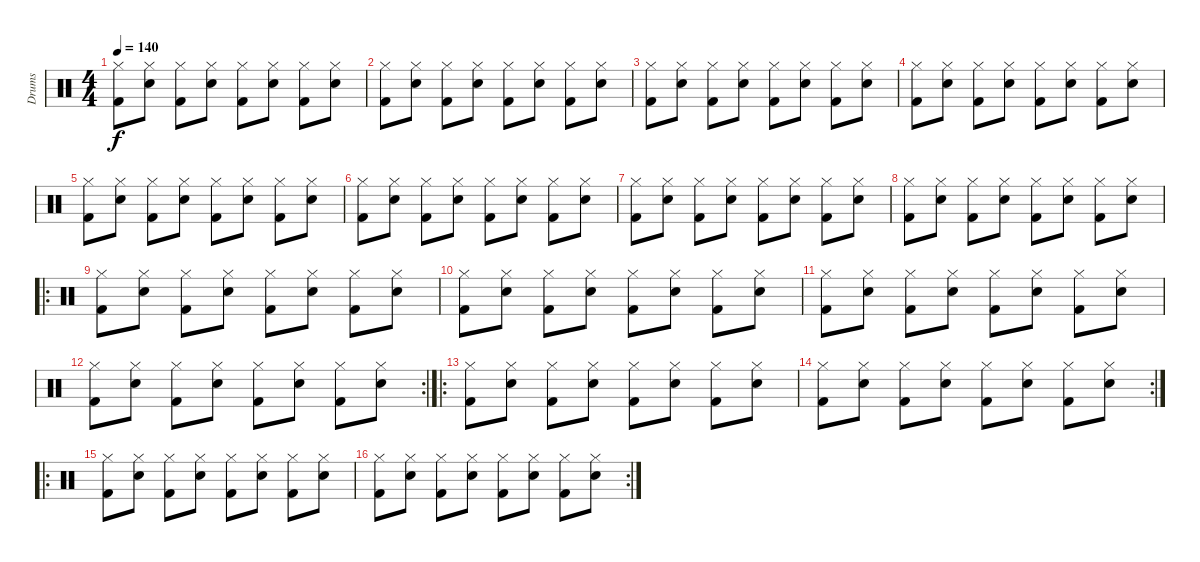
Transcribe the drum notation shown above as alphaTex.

\track ("Drums" "Drums") {instrument percussion}
\staff {score}
\articulation defaults
\ts (4 4)
\tempo 140
\clef neutral
\ks c
("Hi-Hat (closed)" "Kick (hit) 2").8{dy f} ("Hi-Hat (closed)" "Snare (hit) 2").8 ("Hi-Hat (closed)" "Kick (hit) 2").8 ("Hi-Hat (closed)" "Snare (hit) 2").8 ("Hi-Hat (closed)" "Kick (hit) 2").8 ("Hi-Hat (closed)" "Snare (hit) 2").8 ("Hi-Hat (closed)" "Kick (hit) 2").8 ("Hi-Hat (closed)" "Snare (hit) 2").8 |
("Hi-Hat (closed)" "Kick (hit) 2").8 ("Hi-Hat (closed)" "Snare (hit) 2").8 ("Hi-Hat (closed)" "Kick (hit) 2").8 ("Hi-Hat (closed)" "Snare (hit) 2").8 ("Hi-Hat (closed)" "Kick (hit) 2").8 ("Hi-Hat (closed)" "Snare (hit) 2").8 ("Hi-Hat (closed)" "Kick (hit) 2").8 ("Hi-Hat (closed)" "Snare (hit) 2").8 |
("Hi-Hat (closed)" "Kick (hit) 2").8 ("Hi-Hat (closed)" "Snare (hit) 2").8 ("Hi-Hat (closed)" "Kick (hit) 2").8 ("Hi-Hat (closed)" "Snare (hit) 2").8 ("Hi-Hat (closed)" "Kick (hit) 2").8 ("Hi-Hat (closed)" "Snare (hit) 2").8 ("Hi-Hat (closed)" "Kick (hit) 2").8 ("Hi-Hat (closed)" "Snare (hit) 2").8 |
("Hi-Hat (closed)" "Kick (hit) 2").8 ("Hi-Hat (closed)" "Snare (hit) 2").8 ("Hi-Hat (closed)" "Kick (hit) 2").8 ("Hi-Hat (closed)" "Snare (hit) 2").8 ("Hi-Hat (closed)" "Kick (hit) 2").8 ("Hi-Hat (closed)" "Snare (hit) 2").8 ("Hi-Hat (closed)" "Kick (hit) 2").8 ("Hi-Hat (closed)" "Snare (hit) 2").8 |
("Hi-Hat (closed)" "Kick (hit) 2").8 ("Hi-Hat (closed)" "Snare (hit) 2").8 ("Hi-Hat (closed)" "Kick (hit) 2").8 ("Hi-Hat (closed)" "Snare (hit) 2").8 ("Hi-Hat (closed)" "Kick (hit) 2").8 ("Hi-Hat (closed)" "Snare (hit) 2").8 ("Hi-Hat (closed)" "Kick (hit) 2").8 ("Hi-Hat (closed)" "Snare (hit) 2").8 |
("Hi-Hat (closed)" "Kick (hit) 2").8 ("Hi-Hat (closed)" "Snare (hit) 2").8 ("Hi-Hat (closed)" "Kick (hit) 2").8 ("Hi-Hat (closed)" "Snare (hit) 2").8 ("Hi-Hat (closed)" "Kick (hit) 2").8 ("Hi-Hat (closed)" "Snare (hit) 2").8 ("Hi-Hat (closed)" "Kick (hit) 2").8 ("Hi-Hat (closed)" "Snare (hit) 2").8 |
("Hi-Hat (closed)" "Kick (hit) 2").8 ("Hi-Hat (closed)" "Snare (hit) 2").8 ("Hi-Hat (closed)" "Kick (hit) 2").8 ("Hi-Hat (closed)" "Snare (hit) 2").8 ("Hi-Hat (closed)" "Kick (hit) 2").8 ("Hi-Hat (closed)" "Snare (hit) 2").8 ("Hi-Hat (closed)" "Kick (hit) 2").8 ("Hi-Hat (closed)" "Snare (hit) 2").8 |
("Hi-Hat (closed)" "Kick (hit) 2").8 ("Hi-Hat (closed)" "Snare (hit) 2").8 ("Hi-Hat (closed)" "Kick (hit) 2").8 ("Hi-Hat (closed)" "Snare (hit) 2").8 ("Hi-Hat (closed)" "Kick (hit) 2").8 ("Hi-Hat (closed)" "Snare (hit) 2").8 ("Hi-Hat (closed)" "Kick (hit) 2").8 ("Hi-Hat (closed)" "Snare (hit) 2").8 |
\ro
("Hi-Hat (closed)" "Kick (hit) 2").8 ("Hi-Hat (closed)" "Snare (hit) 2").8 ("Hi-Hat (closed)" "Kick (hit) 2").8 ("Hi-Hat (closed)" "Snare (hit) 2").8 ("Hi-Hat (closed)" "Kick (hit) 2").8 ("Hi-Hat (closed)" "Snare (hit) 2").8 ("Hi-Hat (closed)" "Kick (hit) 2").8 ("Hi-Hat (closed)" "Snare (hit) 2").8 |
("Hi-Hat (closed)" "Kick (hit) 2").8 ("Hi-Hat (closed)" "Snare (hit) 2").8 ("Hi-Hat (closed)" "Kick (hit) 2").8 ("Hi-Hat (closed)" "Snare (hit) 2").8 ("Hi-Hat (closed)" "Kick (hit) 2").8 ("Hi-Hat (closed)" "Snare (hit) 2").8 ("Hi-Hat (closed)" "Kick (hit) 2").8 ("Hi-Hat (closed)" "Snare (hit) 2").8 |
("Hi-Hat (closed)" "Kick (hit) 2").8 ("Hi-Hat (closed)" "Snare (hit) 2").8 ("Hi-Hat (closed)" "Kick (hit) 2").8 ("Hi-Hat (closed)" "Snare (hit) 2").8 ("Hi-Hat (closed)" "Kick (hit) 2").8 ("Hi-Hat (closed)" "Snare (hit) 2").8 ("Hi-Hat (closed)" "Kick (hit) 2").8 ("Hi-Hat (closed)" "Snare (hit) 2").8 |
\rc 2
("Hi-Hat (closed)" "Kick (hit) 2").8 ("Hi-Hat (closed)" "Snare (hit) 2").8 ("Hi-Hat (closed)" "Kick (hit) 2").8 ("Hi-Hat (closed)" "Snare (hit) 2").8 ("Hi-Hat (closed)" "Kick (hit) 2").8 ("Hi-Hat (closed)" "Snare (hit) 2").8 ("Hi-Hat (closed)" "Kick (hit) 2").8 ("Hi-Hat (closed)" "Snare (hit) 2").8 |
\ro
("Hi-Hat (closed)" "Kick (hit) 2").8 ("Hi-Hat (closed)" "Snare (hit) 2").8 ("Hi-Hat (closed)" "Kick (hit) 2").8 ("Hi-Hat (closed)" "Snare (hit) 2").8 ("Hi-Hat (closed)" "Kick (hit) 2").8 ("Hi-Hat (closed)" "Snare (hit) 2").8 ("Hi-Hat (closed)" "Kick (hit) 2").8 ("Hi-Hat (closed)" "Snare (hit) 2").8 |
\rc 2
("Hi-Hat (closed)" "Kick (hit) 2").8 ("Hi-Hat (closed)" "Snare (hit) 2").8 ("Hi-Hat (closed)" "Kick (hit) 2").8 ("Hi-Hat (closed)" "Snare (hit) 2").8 ("Hi-Hat (closed)" "Kick (hit) 2").8 ("Hi-Hat (closed)" "Snare (hit) 2").8 ("Hi-Hat (closed)" "Kick (hit) 2").8 ("Hi-Hat (closed)" "Snare (hit) 2").8 |
\ro
("Hi-Hat (closed)" "Kick (hit) 2").8 ("Hi-Hat (closed)" "Snare (hit) 2").8 ("Hi-Hat (closed)" "Kick (hit) 2").8 ("Hi-Hat (closed)" "Snare (hit) 2").8 ("Hi-Hat (closed)" "Kick (hit) 2").8 ("Hi-Hat (closed)" "Snare (hit) 2").8 ("Hi-Hat (closed)" "Kick (hit) 2").8 ("Hi-Hat (closed)" "Snare (hit) 2").8 |
\rc 2
("Hi-Hat (closed)" "Kick (hit) 2").8 ("Hi-Hat (closed)" "Snare (hit) 2").8 ("Hi-Hat (closed)" "Kick (hit) 2").8 ("Hi-Hat (closed)" "Snare (hit) 2").8 ("Hi-Hat (closed)" "Kick (hit) 2").8 ("Hi-Hat (closed)" "Snare (hit) 2").8 ("Hi-Hat (closed)" "Kick (hit) 2").8 ("Hi-Hat (closed)" "Snare (hit) 2").8
